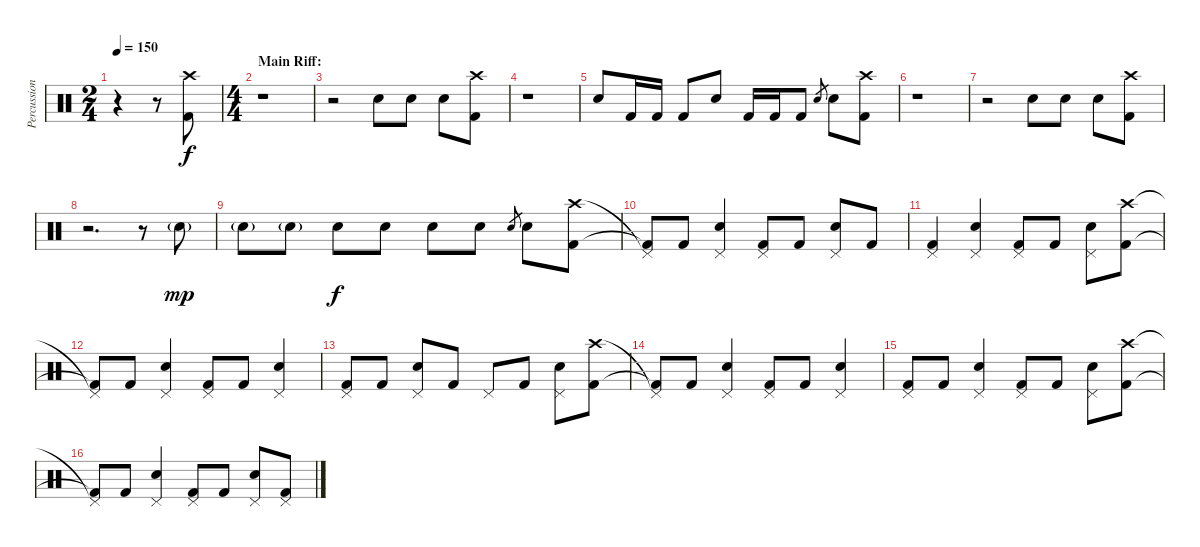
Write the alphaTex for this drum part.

\track ("Percussion" "Percussion") {instrument percussion}
\staff {score}
\articulation defaults
\ts (2 4)
\tempo 150
\clef neutral
\ks c
r.4{dy f} r.8 ("Crash high (hit)" "Kick (hit) 2").8 |
\ts (4 4)
\section ("" "Main Riff:")
r.1 |
r.2 "Snare (hit) 2".8 "Snare (hit) 2".8 "Snare (hit) 2".8 ("Crash high (hit)" "Kick (hit) 2").8 |
r.1 |
"Snare (hit) 2".8 "Kick (hit) 2".16 "Kick (hit) 2".16 "Kick (hit) 2".8 "Snare (hit) 2".8 "Kick (hit) 2".16 "Kick (hit) 2".16 "Kick (hit) 2".8 "Snare (hit) 2".8{gr} "Snare (hit) 2".8 ("Crash high (hit)" "Kick (hit) 2").8 |
r.1 |
r.2 "Snare (hit) 2".8 "Snare (hit) 2".8 "Snare (hit) 2".8 ("Crash high (hit)" "Kick (hit) 2").8 |
r.2{d} r.8 "Snare (hit) 2"{g}.8{dy mp} |
"Snare (hit) 2"{g}.8 "Snare (hit) 2"{g}.8 "Snare (hit) 2".8{dy f} "Snare (hit) 2".8 "Snare (hit) 2".8 "Snare (hit) 2".8 "Snare (hit) 2".8{gr} "Snare (hit) 2".8 ("Crash high (hit)" "Kick (hit) 2").8 |
("Pedal Hi-Hat (hit)"{t} "Kick (hit) 2"{t}).8 "Kick (hit) 2".8 ("Pedal Hi-Hat (hit)" "Snare (hit) 2").4 ("Pedal Hi-Hat (hit)" "Kick (hit) 2").8 "Kick (hit) 2".8 ("Pedal Hi-Hat (hit)" "Snare (hit) 2").8 "Kick (hit) 2".8 |
("Pedal Hi-Hat (hit)" "Kick (hit) 2").4 ("Pedal Hi-Hat (hit)" "Snare (hit) 2").4 ("Pedal Hi-Hat (hit)" "Kick (hit) 2").8 "Kick (hit) 2".8 ("Pedal Hi-Hat (hit)" "Snare (hit) 2").8 ("Crash high (hit)" "Kick (hit) 2").8 |
("Pedal Hi-Hat (hit)"{t} "Kick (hit) 2"{t}).8 "Kick (hit) 2".8 ("Pedal Hi-Hat (hit)" "Snare (hit) 2").4 ("Pedal Hi-Hat (hit)" "Kick (hit) 2").8 "Kick (hit) 2".8 ("Pedal Hi-Hat (hit)" "Snare (hit) 2").4 |
("Pedal Hi-Hat (hit)" "Kick (hit) 2").8 "Kick (hit) 2".8 ("Pedal Hi-Hat (hit)" "Snare (hit) 2").8 "Kick (hit) 2".8 "Pedal Hi-Hat (hit)".8 "Kick (hit) 2".8 ("Pedal Hi-Hat (hit)" "Snare (hit) 2").8 ("Crash high (hit)" "Kick (hit) 2").8 |
("Pedal Hi-Hat (hit)"{t} "Kick (hit) 2"{t}).8 "Kick (hit) 2".8 ("Pedal Hi-Hat (hit)" "Snare (hit) 2").4 ("Pedal Hi-Hat (hit)" "Kick (hit) 2").8 "Kick (hit) 2".8 ("Pedal Hi-Hat (hit)" "Snare (hit) 2").4 |
("Pedal Hi-Hat (hit)" "Kick (hit) 2").8 "Kick (hit) 2".8 ("Pedal Hi-Hat (hit)" "Snare (hit) 2").4 ("Pedal Hi-Hat (hit)" "Kick (hit) 2").8 "Kick (hit) 2".8 ("Pedal Hi-Hat (hit)" "Snare (hit) 2").8 ("Crash high (hit)" "Kick (hit) 2").8 |
("Pedal Hi-Hat (hit)"{t} "Kick (hit) 2"{t}).8 "Kick (hit) 2".8 ("Pedal Hi-Hat (hit)" "Snare (hit) 2").4 ("Pedal Hi-Hat (hit)" "Kick (hit) 2").8 "Kick (hit) 2".8 ("Pedal Hi-Hat (hit)" "Snare (hit) 2").8 ("Pedal Hi-Hat (hit)" "Kick (hit) 2").8
